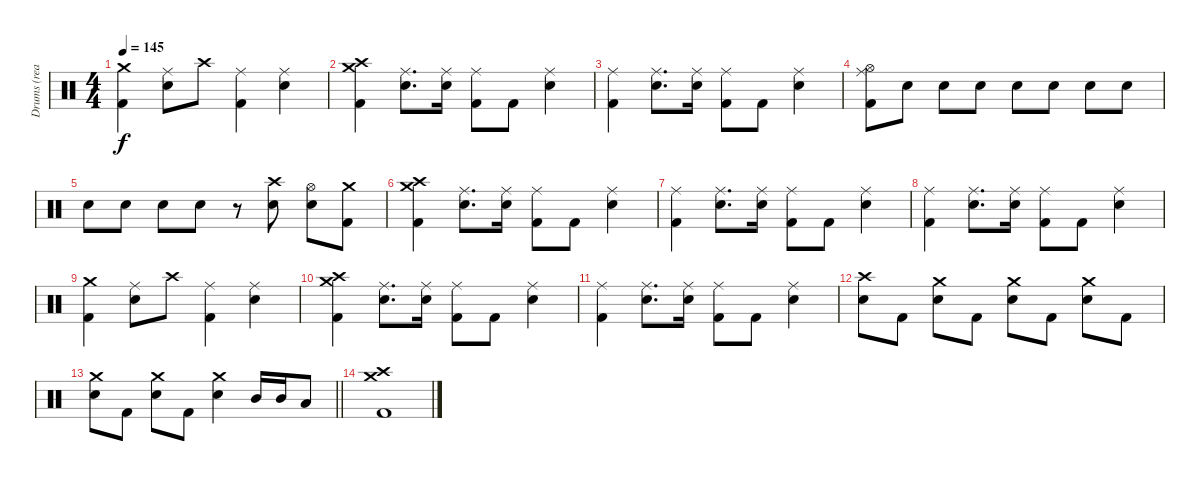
\track ("Drums (real)" "Drums (rea") {instrument percussion}
\staff {score}
\articulation defaults
\ts (4 4)
\tempo 145
\clef neutral
\ks c
("Crash medium (hit)" "Kick (hit) 2").4{dy f} ("Ride (middle)" "Snare (hit) 2").8 "Crash high (hit)".8 ("Ride (middle)" "Kick (hit) 2").4 ("Ride (middle)" "Snare (hit) 2").4 |
("Crash high (hit)" "Crash medium (hit)" "Kick (hit) 2").4 ("Ride (middle)" "Snare (hit) 2").8{d} ("Ride (middle)" "Snare (hit) 2").16 ("Ride (middle)" "Kick (hit) 2").8 "Kick (hit) 2".8 ("Ride (middle)" "Snare (hit) 2").4 |
("Ride (middle)" "Kick (hit) 2").4 ("Ride (middle)" "Snare (hit) 2").8{d} ("Ride (middle)" "Snare (hit) 2").16 ("Ride (middle)" "Kick (hit) 2").8 "Kick (hit) 2".8 ("Ride (middle)" "Snare (hit) 2").4 |
("Hi-Hat (open)" "Ride (middle)" "Kick (hit) 2").8 "Snare (hit) 2".8{volume 4} "Snare (hit) 2".8{volume 13} "Snare (hit) 2".8 "Snare (hit) 2".8 "Snare (hit) 2".8 "Snare (hit) 2".8 "Snare (hit) 2".8 |
"Snare (hit) 2".8 "Snare (hit) 2".8 "Snare (hit) 2".8 "Snare (hit) 2".8 r.8 ("Crash high (hit)" "Snare (hit) 2").8 ("Hi-Hat (open)" "Snare (hit) 2").8 ("Crash medium (hit)" "Kick (hit) 2").8 |
("Crash high (hit)" "Crash medium (hit)" "Kick (hit) 2").4 ("Ride (middle)" "Snare (hit) 2").8{d} ("Ride (middle)" "Snare (hit) 2").16 ("Ride (middle)" "Kick (hit) 2").8 "Kick (hit) 2".8 ("Ride (middle)" "Snare (hit) 2").4 |
("Ride (middle)" "Kick (hit) 2").4 ("Ride (middle)" "Snare (hit) 2").8{d} ("Ride (middle)" "Snare (hit) 2").16 ("Ride (middle)" "Kick (hit) 2").8 "Kick (hit) 2".8 ("Ride (middle)" "Snare (hit) 2").4 |
("Ride (middle)" "Kick (hit) 2").4 ("Ride (middle)" "Snare (hit) 2").8{d} ("Ride (middle)" "Snare (hit) 2").16 ("Ride (middle)" "Kick (hit) 2").8 "Kick (hit) 2".8 ("Ride (middle)" "Snare (hit) 2").4 |
("Crash medium (hit)" "Kick (hit) 2").4 ("Ride (middle)" "Snare (hit) 2").8 "Crash high (hit)".8 ("Ride (middle)" "Kick (hit) 2").4 ("Ride (middle)" "Snare (hit) 2").4 |
("Crash high (hit)" "Crash medium (hit)" "Kick (hit) 2").4 ("Ride (middle)" "Snare (hit) 2").8{d} ("Ride (middle)" "Snare (hit) 2").16 ("Ride (middle)" "Kick (hit) 2").8 "Kick (hit) 2".8 ("Ride (middle)" "Snare (hit) 2").4 |
("Ride (middle)" "Kick (hit) 2").4 ("Ride (middle)" "Snare (hit) 2").8{d} ("Ride (middle)" "Snare (hit) 2").16 ("Ride (middle)" "Kick (hit) 2").8 "Kick (hit) 2".8 ("Ride (middle)" "Snare (hit) 2").4 |
("Crash high (hit)" "Snare (hit) 2").8 "Kick (hit) 2".8 ("Crash medium (hit)" "Snare (hit) 2").8 "Kick (hit) 2".8 ("Crash medium (hit)" "Snare (hit) 2").8 "Kick (hit) 2".8 ("Crash medium (hit)" "Snare (hit) 2").8 "Kick (hit) 2".8 |
\barLineRight lightlight
("Crash medium (hit)" "Snare (hit) 2").8 "Kick (hit) 2".8 ("Crash medium (hit)" "Snare (hit) 2").8 "Kick (hit) 2".8 ("Crash medium (hit)" "Snare (hit) 2").4 "Mid Tom (hit)".16 "Mid Tom (hit)".16 "Low Tom (hit)".8 |
("Crash medium (hit)" "Crash high (hit)" "Kick (hit) 2").1
